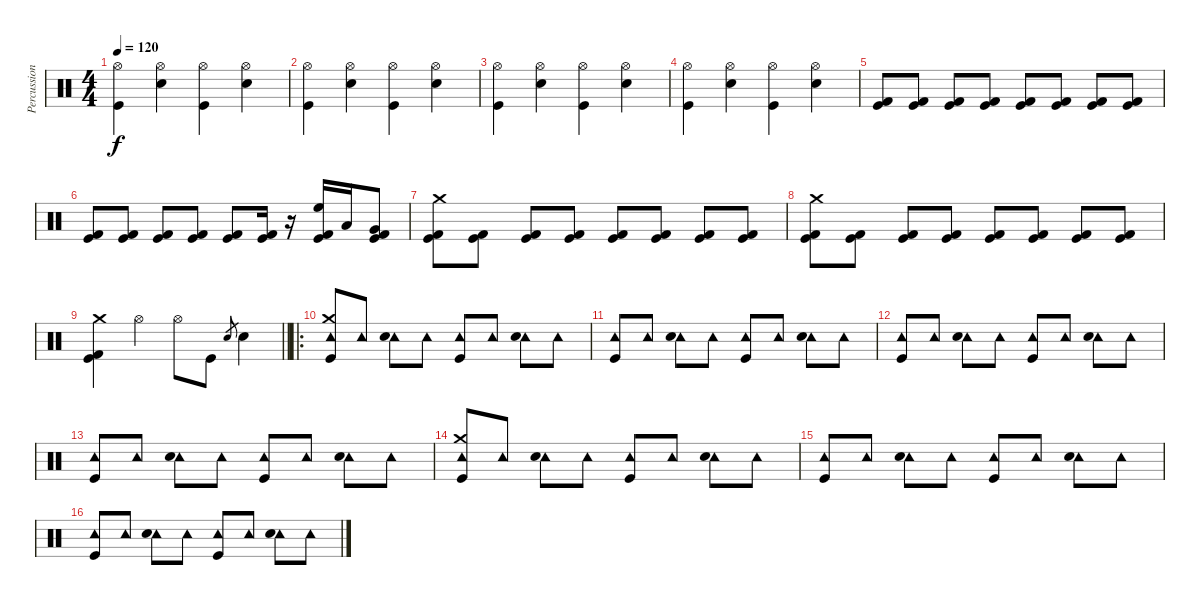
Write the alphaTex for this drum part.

\track ("Percussion" "Percussion") {instrument percussion}
\staff {score}
\articulation defaults
\ts (4 4)
\tempo 120
\clef neutral
\ks c
("Hi-Hat (open)" "Kick (hit)").4{dy f} ("Hi-Hat (open)" "Electric Snare (hit)").4 ("Hi-Hat (open)" "Kick (hit)").4 ("Hi-Hat (open)" "Electric Snare (hit)").4 |
("Hi-Hat (open)" "Kick (hit)").4 ("Hi-Hat (open)" "Electric Snare (hit)").4 ("Hi-Hat (open)" "Kick (hit)").4 ("Hi-Hat (open)" "Electric Snare (hit)").4 |
("Hi-Hat (open)" "Kick (hit)").4 ("Hi-Hat (open)" "Electric Snare (hit)").4 ("Hi-Hat (open)" "Kick (hit)").4 ("Hi-Hat (open)" "Electric Snare (hit)").4 |
("Hi-Hat (open)" "Kick (hit)").4 ("Hi-Hat (open)" "Electric Snare (hit)").4 ("Hi-Hat (open)" "Kick (hit)").4 ("Hi-Hat (open)" "Electric Snare (hit)").4 |
("Kick (hit) 2" "Kick (hit)").8 ("Kick (hit) 2" "Kick (hit)").8 ("Kick (hit) 2" "Kick (hit)").8 ("Kick (hit) 2" "Kick (hit)").8 ("Kick (hit) 2" "Kick (hit)").8 ("Kick (hit) 2" "Kick (hit)").8 ("Kick (hit) 2" "Kick (hit)").8 ("Kick (hit) 2" "Kick (hit)").8 |
("Kick (hit) 2" "Kick (hit)").8 ("Kick (hit) 2" "Kick (hit)").8 ("Kick (hit) 2" "Kick (hit)").8 ("Kick (hit) 2" "Kick (hit)").8 ("Kick (hit) 2" "Kick (hit)").8 ("Kick (hit) 2" "Kick (hit)").16 r.16 ("High Floor Tom (hit)" "Kick (hit) 2" "Kick (hit)").16 "Low Tom (hit)".16 ("Very Low Tom (hit)" "Kick (hit) 2" "Kick (hit)").8 |
("Crash medium (hit)" "Kick (hit) 2" "Kick (hit)").8 ("Kick (hit) 2" "Kick (hit)").8 ("Kick (hit) 2" "Kick (hit)").8 ("Kick (hit) 2" "Kick (hit)").8 ("Kick (hit) 2" "Kick (hit)").8 ("Kick (hit) 2" "Kick (hit)").8 ("Kick (hit) 2" "Kick (hit)").8 ("Kick (hit) 2" "Kick (hit)").8 |
("Crash medium (hit)" "Kick (hit) 2" "Kick (hit)").8 ("Kick (hit) 2" "Kick (hit)").8 ("Kick (hit) 2" "Kick (hit)").8 ("Kick (hit) 2" "Kick (hit)").8 ("Kick (hit) 2" "Kick (hit)").8 ("Kick (hit) 2" "Kick (hit)").8 ("Kick (hit) 2" "Kick (hit)").8 ("Kick (hit) 2" "Kick (hit)").8 |
\barLineRight lightlight
("Crash medium (hit)" "Kick (hit) 2" "Kick (hit)").4 "Hi-Hat (open)".4 "Hi-Hat (open)".8 "Kick (hit)".8 "Electric Snare (hit)".8{gr} "Electric Snare (hit)".4 |
\ro
("Crash medium (hit)" "Tambourine (hit)" "Kick (hit)").8 "Tambourine (hit)".8 ("Tambourine (hit)" "Electric Snare (hit)").8 "Tambourine (hit)".8 ("Tambourine (hit)" "Kick (hit)").8 "Tambourine (hit)".8 ("Tambourine (hit)" "Electric Snare (hit)").8 "Tambourine (hit)".8 |
("Tambourine (hit)" "Kick (hit)").8 "Tambourine (hit)".8 ("Tambourine (hit)" "Electric Snare (hit)").8 "Tambourine (hit)".8 ("Tambourine (hit)" "Kick (hit)").8 "Tambourine (hit)".8 ("Tambourine (hit)" "Electric Snare (hit)").8 "Tambourine (hit)".8 |
("Tambourine (hit)" "Kick (hit)").8 "Tambourine (hit)".8 ("Tambourine (hit)" "Electric Snare (hit)").8 "Tambourine (hit)".8 ("Tambourine (hit)" "Kick (hit)").8 "Tambourine (hit)".8 ("Tambourine (hit)" "Electric Snare (hit)").8 "Tambourine (hit)".8 |
("Tambourine (hit)" "Kick (hit)").8 "Tambourine (hit)".8 ("Tambourine (hit)" "Electric Snare (hit)").8 "Tambourine (hit)".8 ("Tambourine (hit)" "Kick (hit)").8 "Tambourine (hit)".8 ("Tambourine (hit)" "Electric Snare (hit)").8 "Tambourine (hit)".8 |
("Crash medium (hit)" "Tambourine (hit)" "Kick (hit)").8 "Tambourine (hit)".8 ("Tambourine (hit)" "Electric Snare (hit)").8 "Tambourine (hit)".8 ("Tambourine (hit)" "Kick (hit)").8 "Tambourine (hit)".8 ("Tambourine (hit)" "Electric Snare (hit)").8 "Tambourine (hit)".8 |
("Tambourine (hit)" "Kick (hit)").8 "Tambourine (hit)".8 ("Tambourine (hit)" "Electric Snare (hit)").8 "Tambourine (hit)".8 ("Tambourine (hit)" "Kick (hit)").8 "Tambourine (hit)".8 ("Tambourine (hit)" "Electric Snare (hit)").8 "Tambourine (hit)".8 |
("Tambourine (hit)" "Kick (hit)").8 "Tambourine (hit)".8 ("Tambourine (hit)" "Electric Snare (hit)").8 "Tambourine (hit)".8 ("Tambourine (hit)" "Kick (hit)").8 "Tambourine (hit)".8 ("Tambourine (hit)" "Electric Snare (hit)").8 "Tambourine (hit)".8
